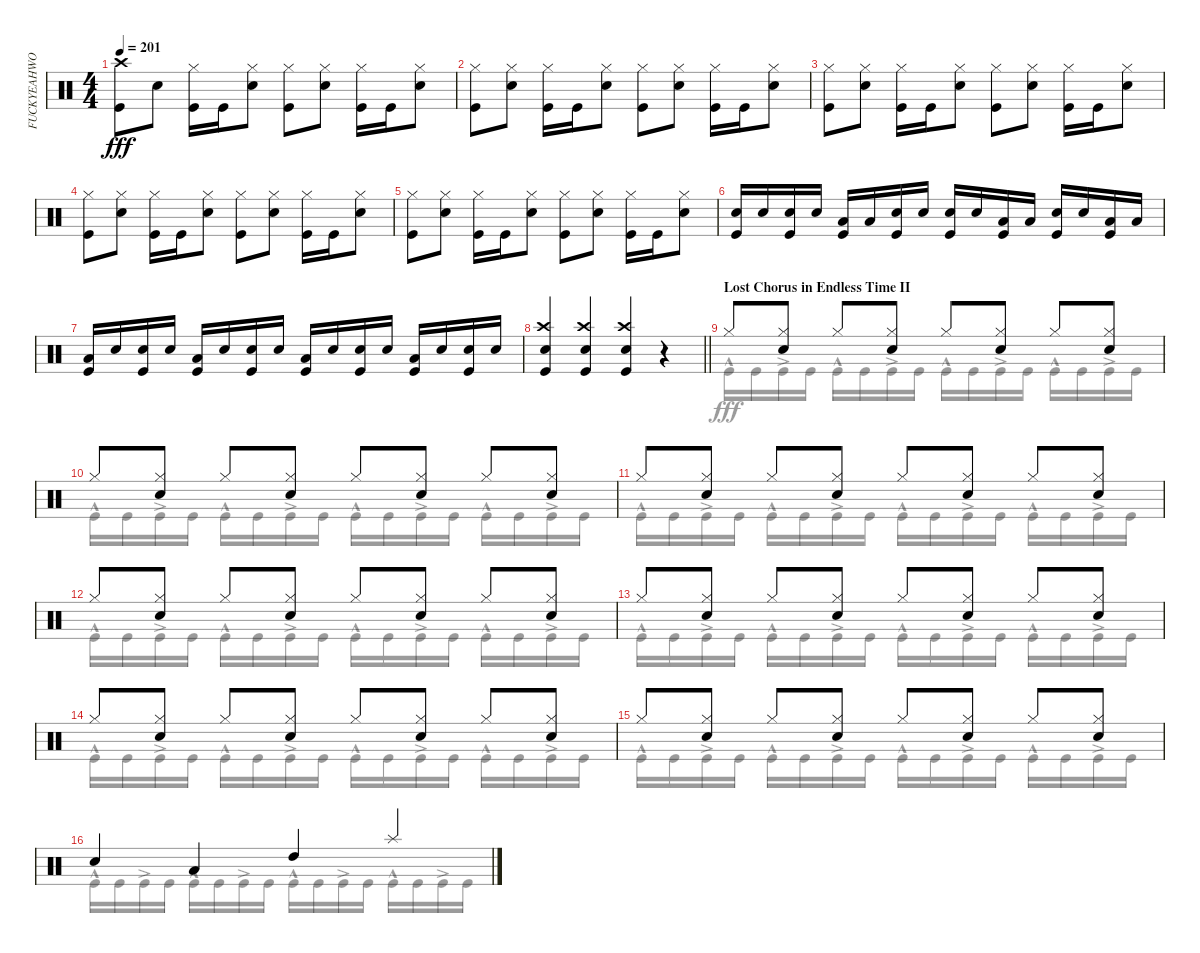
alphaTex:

\track ("FUCKYEAHWOOTDAVEMACKINTOSH(Percussion)" "FUCKYEAHWO") {instrument percussion}
\staff {score}
\articulation defaults
\voice
\ts (4 4)
\tempo 201
\clef neutral
\ks c
("Kick (hit)" "Crash high (hit)").8{dy fff} "Snare (hit) 2".8 ("Kick (hit)" "Hi-Hat (closed)").16 "Kick (hit)".16 ("Snare (hit) 2" "Hi-Hat (closed)").8 ("Kick (hit)" "Hi-Hat (closed)").8 ("Snare (hit) 2" "Hi-Hat (closed)").8 ("Kick (hit)" "Hi-Hat (closed)").16 "Kick (hit)".16 ("Snare (hit) 2" "Hi-Hat (closed)").8 |
("Kick (hit)" "Hi-Hat (closed)").8 ("Snare (hit) 2" "Hi-Hat (closed)").8 ("Kick (hit)" "Hi-Hat (closed)").16 "Kick (hit)".16 ("Snare (hit) 2" "Hi-Hat (closed)").8 ("Kick (hit)" "Hi-Hat (closed)").8 ("Snare (hit) 2" "Hi-Hat (closed)").8 ("Kick (hit)" "Hi-Hat (closed)").16 "Kick (hit)".16 ("Snare (hit) 2" "Hi-Hat (closed)").8 |
("Kick (hit)" "Hi-Hat (closed)").8 ("Snare (hit) 2" "Hi-Hat (closed)").8 ("Kick (hit)" "Hi-Hat (closed)").16 "Kick (hit)".16 ("Snare (hit) 2" "Hi-Hat (closed)").8 ("Kick (hit)" "Hi-Hat (closed)").8 ("Snare (hit) 2" "Hi-Hat (closed)").8 ("Kick (hit)" "Hi-Hat (closed)").16 "Kick (hit)".16 ("Snare (hit) 2" "Hi-Hat (closed)").8 |
("Kick (hit)" "Hi-Hat (closed)").8 ("Snare (hit) 2" "Hi-Hat (closed)").8 ("Kick (hit)" "Hi-Hat (closed)").16 "Kick (hit)".16 ("Snare (hit) 2" "Hi-Hat (closed)").8 ("Kick (hit)" "Hi-Hat (closed)").8 ("Snare (hit) 2" "Hi-Hat (closed)").8 ("Kick (hit)" "Hi-Hat (closed)").16 "Kick (hit)".16 ("Snare (hit) 2" "Hi-Hat (closed)").8 |
("Kick (hit)" "Hi-Hat (closed)").8 ("Snare (hit) 2" "Hi-Hat (closed)").8 ("Kick (hit)" "Hi-Hat (closed)").16 "Kick (hit)".16 ("Snare (hit) 2" "Hi-Hat (closed)").8 ("Kick (hit)" "Hi-Hat (closed)").8 ("Snare (hit) 2" "Hi-Hat (closed)").8 ("Kick (hit)" "Hi-Hat (closed)").16 "Kick (hit)".16 ("Snare (hit) 2" "Hi-Hat (closed)").8 |
("Snare (hit) 2" "Kick (hit)").16 "Snare (hit) 2".16 ("Snare (hit) 2" "Kick (hit)").16 "Snare (hit) 2".16 ("Low Tom (hit)" "Kick (hit)").16 "Low Tom (hit)".16 ("Snare (hit) 2" "Kick (hit)").16 "Snare (hit) 2".16 ("Snare (hit) 2" "Kick (hit)").16 "Snare (hit) 2".16 ("Low Tom (hit)" "Kick (hit)").16 "Low Tom (hit)".16 ("Snare (hit) 2" "Kick (hit)").16 "Snare (hit) 2".16 ("Low Tom (hit)" "Kick (hit)").16 "Low Tom (hit)".16 |
("Low Floor Tom (hit)" "Kick (hit)").16 "Snare (hit) 2".16 ("Snare (hit) 2" "Kick (hit)").16 "Snare (hit) 2".16 ("Kick (hit)" "Low Floor Tom (hit)").16 "Snare (hit) 2".16 ("Snare (hit) 2" "Kick (hit)").16 "Snare (hit) 2".16 ("Low Floor Tom (hit)" "Kick (hit)").16 "Snare (hit) 2".16 ("Snare (hit) 2" "Kick (hit)").16 "Snare (hit) 2".16 ("Low Floor Tom (hit)" "Kick (hit)").16 "Snare (hit) 2".16 ("Snare (hit) 2" "Kick (hit)").16 "Snare (hit) 2".16 |
\barLineRight lightlight
("Kick (hit)" "Snare (hit) 2" "Crash high (hit)").4 ("Snare (hit) 2" "Kick (hit)" "Crash high (hit)").4 ("Snare (hit) 2" "Kick (hit)" "Crash high (hit)").4 r.4 |
\section ("" "Lost Chorus in Endless Time II")
"Hi-Hat (closed)".8 ("Hi-Hat (closed)" "Snare (hit) 2").8 "Hi-Hat (closed)".8 ("Snare (hit) 2" "Hi-Hat (closed)").8 "Hi-Hat (closed)".8 ("Hi-Hat (closed)" "Snare (hit) 2").8 "Hi-Hat (closed)".8 ("Hi-Hat (closed)" "Snare (hit) 2").8 |
"Hi-Hat (closed)".8 ("Hi-Hat (closed)" "Snare (hit) 2").8 "Hi-Hat (closed)".8 ("Snare (hit) 2" "Hi-Hat (closed)").8 "Hi-Hat (closed)".8 ("Hi-Hat (closed)" "Snare (hit) 2").8 "Hi-Hat (closed)".8 ("Hi-Hat (closed)" "Snare (hit) 2").8 |
"Hi-Hat (closed)".8 ("Hi-Hat (closed)" "Snare (hit) 2").8 "Hi-Hat (closed)".8 ("Snare (hit) 2" "Hi-Hat (closed)").8 "Hi-Hat (closed)".8 ("Hi-Hat (closed)" "Snare (hit) 2").8 "Hi-Hat (closed)".8 ("Hi-Hat (closed)" "Snare (hit) 2").8 |
"Hi-Hat (closed)".8 ("Hi-Hat (closed)" "Snare (hit) 2").8 "Hi-Hat (closed)".8 ("Snare (hit) 2" "Hi-Hat (closed)").8 "Hi-Hat (closed)".8 ("Hi-Hat (closed)" "Snare (hit) 2").8 "Hi-Hat (closed)".8 ("Hi-Hat (closed)" "Snare (hit) 2").8 |
"Hi-Hat (closed)".8 ("Hi-Hat (closed)" "Snare (hit) 2").8 "Hi-Hat (closed)".8 ("Snare (hit) 2" "Hi-Hat (closed)").8 "Hi-Hat (closed)".8 ("Hi-Hat (closed)" "Snare (hit) 2").8 "Hi-Hat (closed)".8 ("Hi-Hat (closed)" "Snare (hit) 2").8 |
"Hi-Hat (closed)".8 ("Hi-Hat (closed)" "Snare (hit) 2").8 "Hi-Hat (closed)".8 ("Snare (hit) 2" "Hi-Hat (closed)").8 "Hi-Hat (closed)".8 ("Hi-Hat (closed)" "Snare (hit) 2").8 "Hi-Hat (closed)".8 ("Hi-Hat (closed)" "Snare (hit) 2").8 |
"Hi-Hat (closed)".8 ("Hi-Hat (closed)" "Snare (hit) 2").8 "Hi-Hat (closed)".8 ("Snare (hit) 2" "Hi-Hat (closed)").8 "Hi-Hat (closed)".8 ("Hi-Hat (closed)" "Snare (hit) 2").8 "Hi-Hat (closed)".8 ("Hi-Hat (closed)" "Snare (hit) 2").8 |
"Snare (hit) 2".4 "Low Tom (hit)".4 "High Tom (hit)".4 "Splash (hit)".4
\voice
\clef neutral
\ottava regular
\simile none
\ks c
|
|
|
|
|
|
|
\barLineRight lightlight
|
"Kick (hit)"{hac}.16 "Kick (hit)".16 "Kick (hit)"{ac}.16 "Kick (hit)".16 "Kick (hit)"{hac}.16 "Kick (hit)".16 "Kick (hit)"{ac}.16 "Kick (hit)".16 "Kick (hit)"{hac}.16 "Kick (hit)".16 "Kick (hit)"{ac}.16 "Kick (hit)".16 "Kick (hit)"{hac}.16 "Kick (hit)".16 "Kick (hit)"{ac}.16 "Kick (hit)".16 |
"Kick (hit)"{hac}.16 "Kick (hit)".16 "Kick (hit)"{ac}.16 "Kick (hit)".16 "Kick (hit)"{hac}.16 "Kick (hit)".16 "Kick (hit)"{ac}.16 "Kick (hit)".16 "Kick (hit)"{hac}.16 "Kick (hit)".16 "Kick (hit)"{ac}.16 "Kick (hit)".16 "Kick (hit)"{hac}.16 "Kick (hit)".16 "Kick (hit)"{ac}.16 "Kick (hit)".16 |
"Kick (hit)"{hac}.16 "Kick (hit)".16 "Kick (hit)"{ac}.16 "Kick (hit)".16 "Kick (hit)"{hac}.16 "Kick (hit)".16 "Kick (hit)"{ac}.16 "Kick (hit)".16 "Kick (hit)"{hac}.16 "Kick (hit)".16 "Kick (hit)"{ac}.16 "Kick (hit)".16 "Kick (hit)"{hac}.16 "Kick (hit)".16 "Kick (hit)"{ac}.16 "Kick (hit)".16 |
"Kick (hit)"{hac}.16 "Kick (hit)".16 "Kick (hit)"{ac}.16 "Kick (hit)".16 "Kick (hit)"{hac}.16 "Kick (hit)".16 "Kick (hit)"{ac}.16 "Kick (hit)".16 "Kick (hit)"{hac}.16 "Kick (hit)".16 "Kick (hit)"{ac}.16 "Kick (hit)".16 "Kick (hit)"{hac}.16 "Kick (hit)".16 "Kick (hit)"{ac}.16 "Kick (hit)".16 |
"Kick (hit)"{hac}.16 "Kick (hit)".16 "Kick (hit)"{ac}.16 "Kick (hit)".16 "Kick (hit)"{hac}.16 "Kick (hit)".16 "Kick (hit)"{ac}.16 "Kick (hit)".16 "Kick (hit)"{hac}.16 "Kick (hit)".16 "Kick (hit)"{ac}.16 "Kick (hit)".16 "Kick (hit)"{hac}.16 "Kick (hit)".16 "Kick (hit)"{ac}.16 "Kick (hit)".16 |
"Kick (hit)"{hac}.16 "Kick (hit)".16 "Kick (hit)"{ac}.16 "Kick (hit)".16 "Kick (hit)"{hac}.16 "Kick (hit)".16 "Kick (hit)"{ac}.16 "Kick (hit)".16 "Kick (hit)"{hac}.16 "Kick (hit)".16 "Kick (hit)"{ac}.16 "Kick (hit)".16 "Kick (hit)"{hac}.16 "Kick (hit)".16 "Kick (hit)"{ac}.16 "Kick (hit)".16 |
"Kick (hit)"{hac}.16 "Kick (hit)".16 "Kick (hit)"{ac}.16 "Kick (hit)".16 "Kick (hit)"{hac}.16 "Kick (hit)".16 "Kick (hit)"{ac}.16 "Kick (hit)".16 "Kick (hit)"{hac}.16 "Kick (hit)".16 "Kick (hit)"{ac}.16 "Kick (hit)".16 "Kick (hit)"{hac}.16 "Kick (hit)".16 "Kick (hit)"{ac}.16 "Kick (hit)".16 |
"Kick (hit)"{hac}.16 "Kick (hit)".16 "Kick (hit)"{ac}.16 "Kick (hit)".16 "Kick (hit)"{hac}.16 "Kick (hit)".16 "Kick (hit)"{ac}.16 "Kick (hit)".16 "Kick (hit)"{hac}.16 "Kick (hit)".16 "Kick (hit)"{ac}.16 "Kick (hit)".16 "Kick (hit)"{hac}.16 "Kick (hit)".16 "Kick (hit)"{ac}.16 "Kick (hit)".16
